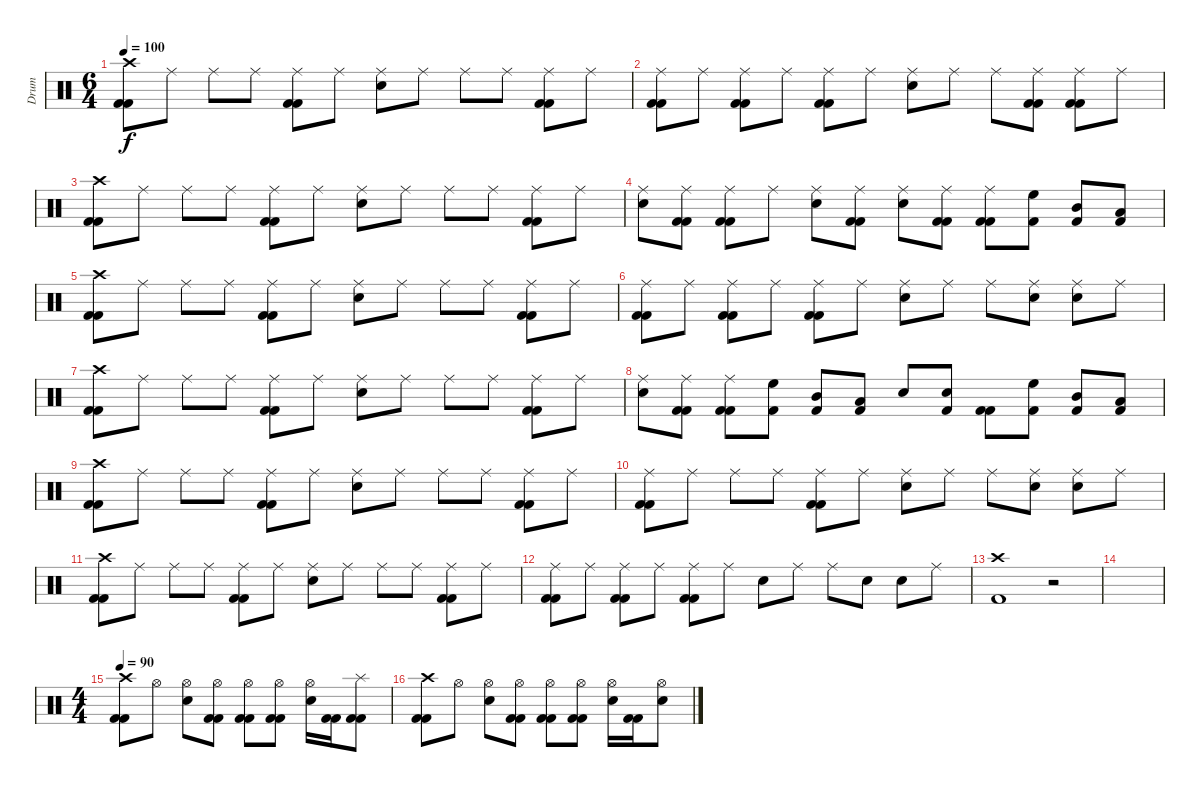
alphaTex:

\track ("Drum" "Drum") {instrument percussion}
\staff {score}
\articulation defaults
\ts (6 4)
\tempo 100
\clef neutral
\ks c
("Crash high (hit)" "Kick (hit) 2" "Kick (hit) 2").8{dy f} "Ride (middle)".8 "Ride (middle)".8 "Ride (middle)".8 ("Ride (middle)" "Kick (hit) 2" "Kick (hit) 2").8 "Ride (middle)".8 ("Ride (middle)" "Electric Snare (hit)").8 "Ride (middle)".8 "Ride (middle)".8 "Ride (middle)".8 ("Ride (middle)" "Kick (hit) 2" "Kick (hit) 2").8 "Ride (middle)".8 |
("Ride (middle)" "Kick (hit) 2" "Kick (hit) 2").8 "Ride (middle)".8 ("Ride (middle)" "Kick (hit) 2" "Kick (hit) 2").8 "Ride (middle)".8 ("Ride (middle)" "Kick (hit) 2" "Kick (hit) 2").8 "Ride (middle)".8 ("Ride (middle)" "Electric Snare (hit)").8 "Ride (middle)".8 "Ride (middle)".8 ("Ride (middle)" "Kick (hit) 2" "Kick (hit) 2").8 ("Ride (middle)" "Kick (hit) 2" "Kick (hit) 2").8 "Ride (middle)".8 |
("Crash high (hit)" "Kick (hit) 2" "Kick (hit) 2").8 "Ride (middle)".8 "Ride (middle)".8 "Ride (middle)".8 ("Ride (middle)" "Kick (hit) 2" "Kick (hit) 2").8 "Ride (middle)".8 ("Ride (middle)" "Electric Snare (hit)").8 "Ride (middle)".8 "Ride (middle)".8 "Ride (middle)".8 ("Ride (middle)" "Kick (hit) 2" "Kick (hit) 2").8 "Ride (middle)".8 |
("Ride (middle)" "Electric Snare (hit)").8 ("Ride (middle)" "Kick (hit) 2" "Kick (hit) 2").8 ("Ride (middle)" "Kick (hit) 2" "Kick (hit) 2").8 "Ride (middle)".8 ("Ride (middle)" "Electric Snare (hit)").8 ("Ride (middle)" "Kick (hit) 2" "Kick (hit) 2").8 ("Ride (middle)" "Electric Snare (hit)").8 ("Ride (middle)" "Kick (hit) 2" "Kick (hit) 2").8 ("Ride (middle)" "Kick (hit) 2" "Kick (hit) 2").8 ("Kick (hit) 2" "High Floor Tom (hit)").8 ("Kick (hit) 2" "Mid Tom (hit)").8 ("Kick (hit) 2" "Low Tom (hit)").8 |
("Crash high (hit)" "Kick (hit) 2" "Kick (hit) 2").8 "Ride (middle)".8 "Ride (middle)".8 "Ride (middle)".8 ("Ride (middle)" "Kick (hit) 2" "Kick (hit) 2").8 "Ride (middle)".8 ("Ride (middle)" "Electric Snare (hit)").8 "Ride (middle)".8 "Ride (middle)".8 "Ride (middle)".8 ("Ride (middle)" "Kick (hit) 2" "Kick (hit) 2").8 "Ride (middle)".8 |
("Ride (middle)" "Kick (hit) 2" "Kick (hit) 2").8 "Ride (middle)".8 ("Ride (middle)" "Kick (hit) 2" "Kick (hit) 2").8 "Ride (middle)".8 ("Ride (middle)" "Kick (hit) 2" "Kick (hit) 2").8 "Ride (middle)".8 ("Ride (middle)" "Electric Snare (hit)").8 "Ride (middle)".8 "Ride (middle)".8 ("Ride (middle)" "Electric Snare (hit)").8 ("Ride (middle)" "Electric Snare (hit)").8 "Ride (middle)".8 |
("Crash high (hit)" "Kick (hit) 2" "Kick (hit) 2").8 "Ride (middle)".8 "Ride (middle)".8 "Ride (middle)".8 ("Ride (middle)" "Kick (hit) 2" "Kick (hit) 2").8 "Ride (middle)".8 ("Ride (middle)" "Electric Snare (hit)").8 "Ride (middle)".8 "Ride (middle)".8 "Ride (middle)".8 ("Ride (middle)" "Kick (hit) 2" "Kick (hit) 2").8 "Ride (middle)".8 |
("Ride (middle)" "Electric Snare (hit)").8 ("Ride (middle)" "Kick (hit) 2" "Kick (hit) 2").8 ("Ride (middle)" "Kick (hit) 2" "Kick (hit) 2").8 ("High Floor Tom (hit)" "Kick (hit) 2").8 ("Mid Tom (hit)" "Kick (hit) 2").8 ("Low Tom (hit)" "Kick (hit) 2").8 "Electric Snare (hit)".8 ("Electric Snare (hit)" "Kick (hit) 2").8 ("Kick (hit) 2" "Kick (hit) 2").8 ("Kick (hit) 2" "High Floor Tom (hit)").8 ("Kick (hit) 2" "Mid Tom (hit)").8 ("Kick (hit) 2" "Low Tom (hit)").8 |
("Crash high (hit)" "Kick (hit) 2" "Kick (hit) 2").8 "Ride (middle)".8 "Ride (middle)".8 "Ride (middle)".8 ("Ride (middle)" "Kick (hit) 2" "Kick (hit) 2").8 "Ride (middle)".8 ("Ride (middle)" "Electric Snare (hit)").8 "Ride (middle)".8 "Ride (middle)".8 "Ride (middle)".8 ("Ride (middle)" "Kick (hit) 2" "Kick (hit) 2").8 "Ride (middle)".8 |
("Ride (middle)" "Kick (hit) 2" "Kick (hit) 2").8 "Ride (middle)".8 "Ride (middle)".8 "Ride (middle)".8 ("Ride (middle)" "Kick (hit) 2" "Kick (hit) 2").8 "Ride (middle)".8 ("Ride (middle)" "Electric Snare (hit)").8 "Ride (middle)".8 "Ride (middle)".8 ("Ride (middle)" "Electric Snare (hit)").8 ("Ride (middle)" "Electric Snare (hit)").8 "Ride (middle)".8 |
("Crash high (hit)" "Kick (hit) 2" "Kick (hit) 2").8 "Ride (middle)".8 "Ride (middle)".8 "Ride (middle)".8 ("Ride (middle)" "Kick (hit) 2" "Kick (hit) 2").8 "Ride (middle)".8 ("Ride (middle)" "Electric Snare (hit)").8 "Ride (middle)".8 "Ride (middle)".8 "Ride (middle)".8 ("Ride (middle)" "Kick (hit) 2" "Kick (hit) 2").8 "Ride (middle)".8 |
("Ride (middle)" "Kick (hit) 2" "Kick (hit) 2").8 "Ride (middle)".8 ("Ride (middle)" "Kick (hit) 2" "Kick (hit) 2").8 "Ride (middle)".8 ("Ride (middle)" "Kick (hit) 2" "Kick (hit) 2").8 "Ride (middle)".8 "Electric Snare (hit)".8 "Ride (middle)".8 "Ride (middle)".8 "Electric Snare (hit)".8 "Electric Snare (hit)".8 "Ride (middle)".8 |
("Crash high (hit)" "Kick (hit) 2").1 r.2 |
|
\ts (4 4)
\tempo 90
("Crash high (hit)" "Kick (hit) 2" "Kick (hit) 2").8 "Hi-Hat (open)".8 ("Hi-Hat (open)" "Electric Snare (hit)").8 ("Hi-Hat (open)" "Kick (hit) 2" "Kick (hit) 2").8 ("Hi-Hat (open)" "Kick (hit) 2" "Kick (hit) 2").8 ("Hi-Hat (open)" "Kick (hit) 2" "Kick (hit) 2").8 ("Hi-Hat (open)" "Electric Snare (hit)").16 ("Kick (hit) 2" "Kick (hit) 2").16 ("Splash (hit)" "Kick (hit) 2" "Kick (hit) 2").8 |
("Crash high (hit)" "Kick (hit) 2" "Kick (hit) 2").8 "Hi-Hat (open)".8 ("Hi-Hat (open)" "Electric Snare (hit)").8 ("Hi-Hat (open)" "Kick (hit) 2" "Kick (hit) 2").8 ("Hi-Hat (open)" "Kick (hit) 2" "Kick (hit) 2").8 ("Hi-Hat (open)" "Kick (hit) 2" "Kick (hit) 2").8 ("Hi-Hat (open)" "Electric Snare (hit)").16 ("Kick (hit) 2" "Kick (hit) 2").16 ("Hi-Hat (open)" "Electric Snare (hit)").8
